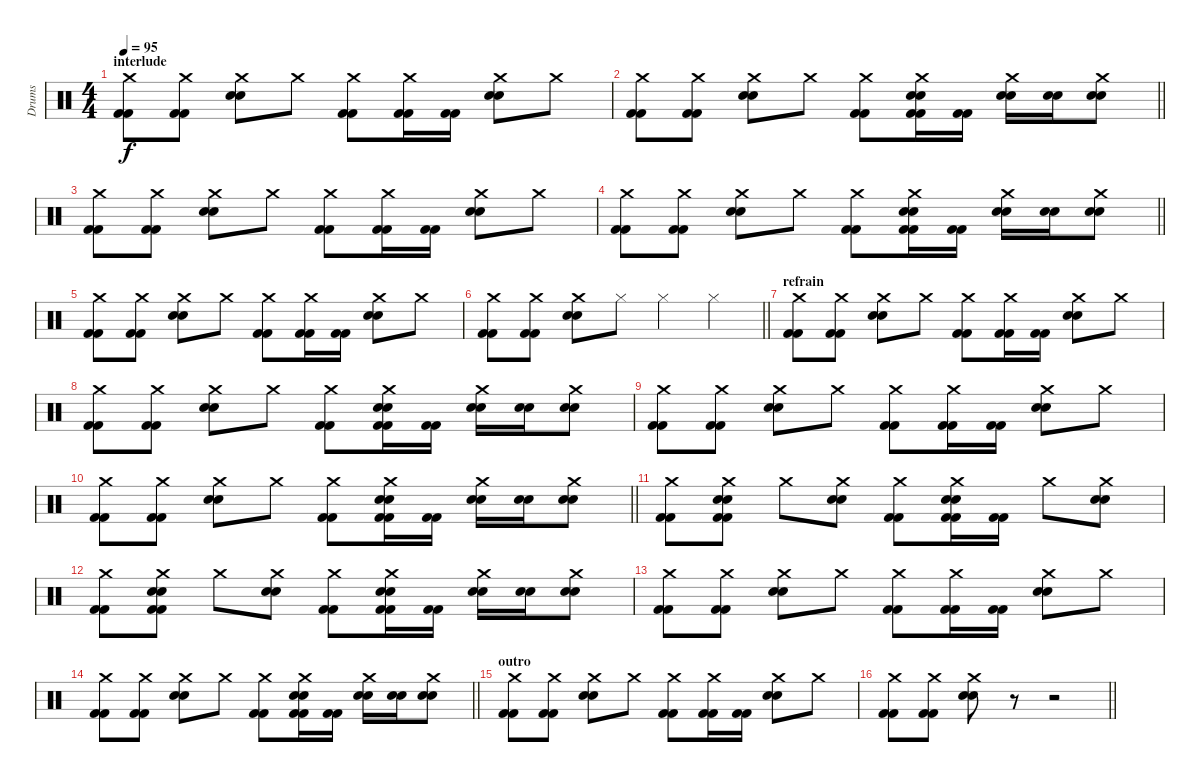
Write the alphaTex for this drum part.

\track ("Drums" "Drums") {instrument percussion}
\staff {score}
\articulation defaults
\ts (4 4)
\section ("" "interlude")
\tempo 95
\clef neutral
\ks c
("Crash medium (hit)" "Kick (hit) 2" "Kick (hit) 2").8{dy f} ("Crash medium (hit)" "Kick (hit) 2" "Kick (hit) 2").8 ("Crash medium (hit)" "Snare (hit) 2" "Snare (hit) 2").8 "Crash medium (hit)".8 ("Crash medium (hit)" "Kick (hit) 2" "Kick (hit) 2").8 ("Crash medium (hit)" "Kick (hit) 2" "Kick (hit) 2").16 ("Kick (hit) 2" "Kick (hit) 2").16 ("Crash medium (hit)" "Snare (hit) 2" "Snare (hit) 2").8 "Crash medium (hit)".8 |
\barLineRight lightlight
("Crash medium (hit)" "Kick (hit) 2" "Kick (hit) 2").8 ("Crash medium (hit)" "Kick (hit) 2" "Kick (hit) 2").8 ("Crash medium (hit)" "Snare (hit) 2" "Snare (hit) 2").8 "Crash medium (hit)".8 ("Crash medium (hit)" "Kick (hit) 2" "Kick (hit) 2").8 ("Crash medium (hit)" "Snare (hit) 2" "Snare (hit) 2" "Kick (hit) 2" "Kick (hit) 2").16 ("Kick (hit) 2" "Kick (hit) 2").16 ("Crash medium (hit)" "Snare (hit) 2" "Snare (hit) 2").16 ("Snare (hit) 2" "Snare (hit) 2").16 ("Crash medium (hit)" "Snare (hit) 2" "Snare (hit) 2").8 |
("Crash medium (hit)" "Kick (hit) 2" "Kick (hit) 2").8 ("Crash medium (hit)" "Kick (hit) 2" "Kick (hit) 2").8 ("Crash medium (hit)" "Snare (hit) 2" "Snare (hit) 2").8 "Crash medium (hit)".8 ("Crash medium (hit)" "Kick (hit) 2" "Kick (hit) 2").8 ("Crash medium (hit)" "Kick (hit) 2" "Kick (hit) 2").16 ("Kick (hit) 2" "Kick (hit) 2").16 ("Crash medium (hit)" "Snare (hit) 2" "Snare (hit) 2").8 "Crash medium (hit)".8 |
\barLineRight lightlight
("Crash medium (hit)" "Kick (hit) 2" "Kick (hit) 2").8 ("Crash medium (hit)" "Kick (hit) 2" "Kick (hit) 2").8 ("Crash medium (hit)" "Snare (hit) 2" "Snare (hit) 2").8 "Crash medium (hit)".8 ("Crash medium (hit)" "Kick (hit) 2" "Kick (hit) 2").8 ("Crash medium (hit)" "Snare (hit) 2" "Snare (hit) 2" "Kick (hit) 2" "Kick (hit) 2").16 ("Kick (hit) 2" "Kick (hit) 2").16 ("Crash medium (hit)" "Snare (hit) 2" "Snare (hit) 2").16 ("Snare (hit) 2" "Snare (hit) 2").16 ("Crash medium (hit)" "Snare (hit) 2" "Snare (hit) 2").8 |
("Crash medium (hit)" "Kick (hit) 2" "Kick (hit) 2").8 ("Crash medium (hit)" "Kick (hit) 2" "Kick (hit) 2").8 ("Crash medium (hit)" "Snare (hit) 2" "Snare (hit) 2").8 "Crash medium (hit)".8 ("Crash medium (hit)" "Kick (hit) 2" "Kick (hit) 2").8 ("Crash medium (hit)" "Kick (hit) 2" "Kick (hit) 2").16 ("Kick (hit) 2" "Kick (hit) 2").16 ("Crash medium (hit)" "Snare (hit) 2" "Snare (hit) 2").8 "Crash medium (hit)".8 |
\barLineRight lightlight
("Crash medium (hit)" "Kick (hit) 2" "Kick (hit) 2").8 ("Crash medium (hit)" "Kick (hit) 2" "Kick (hit) 2").8 ("Crash medium (hit)" "Snare (hit) 2" "Snare (hit) 2").8 "Hi-Hat (closed)".8 "Hi-Hat (closed)".4 "Hi-Hat (closed)".4 |
\section ("" "refrain")
("Crash medium (hit)" "Kick (hit) 2" "Kick (hit) 2").8 ("Crash medium (hit)" "Kick (hit) 2" "Kick (hit) 2").8 ("Crash medium (hit)" "Snare (hit) 2" "Snare (hit) 2").8 "Crash medium (hit)".8 ("Crash medium (hit)" "Kick (hit) 2" "Kick (hit) 2").8 ("Crash medium (hit)" "Kick (hit) 2" "Kick (hit) 2").16 ("Kick (hit) 2" "Kick (hit) 2").16 ("Crash medium (hit)" "Snare (hit) 2" "Snare (hit) 2").8 "Crash medium (hit)".8 |
("Crash medium (hit)" "Kick (hit) 2" "Kick (hit) 2").8 ("Crash medium (hit)" "Kick (hit) 2" "Kick (hit) 2").8 ("Crash medium (hit)" "Snare (hit) 2" "Snare (hit) 2").8 "Crash medium (hit)".8 ("Crash medium (hit)" "Kick (hit) 2" "Kick (hit) 2").8 ("Crash medium (hit)" "Snare (hit) 2" "Snare (hit) 2" "Kick (hit) 2" "Kick (hit) 2").16 ("Kick (hit) 2" "Kick (hit) 2").16 ("Crash medium (hit)" "Snare (hit) 2" "Snare (hit) 2").16 ("Snare (hit) 2" "Snare (hit) 2").16 ("Crash medium (hit)" "Snare (hit) 2" "Snare (hit) 2").8 |
("Crash medium (hit)" "Kick (hit) 2" "Kick (hit) 2").8 ("Crash medium (hit)" "Kick (hit) 2" "Kick (hit) 2").8 ("Crash medium (hit)" "Snare (hit) 2" "Snare (hit) 2").8 "Crash medium (hit)".8 ("Crash medium (hit)" "Kick (hit) 2" "Kick (hit) 2").8 ("Crash medium (hit)" "Kick (hit) 2" "Kick (hit) 2").16 ("Kick (hit) 2" "Kick (hit) 2").16 ("Crash medium (hit)" "Snare (hit) 2" "Snare (hit) 2").8 "Crash medium (hit)".8 |
\barLineRight lightlight
("Crash medium (hit)" "Kick (hit) 2" "Kick (hit) 2").8 ("Crash medium (hit)" "Kick (hit) 2" "Kick (hit) 2").8 ("Crash medium (hit)" "Snare (hit) 2" "Snare (hit) 2").8 "Crash medium (hit)".8 ("Crash medium (hit)" "Kick (hit) 2" "Kick (hit) 2").8 ("Crash medium (hit)" "Snare (hit) 2" "Snare (hit) 2" "Kick (hit) 2" "Kick (hit) 2").16 ("Kick (hit) 2" "Kick (hit) 2").16 ("Crash medium (hit)" "Snare (hit) 2" "Snare (hit) 2").16 ("Snare (hit) 2" "Snare (hit) 2").16 ("Crash medium (hit)" "Snare (hit) 2" "Snare (hit) 2").8 |
("Crash medium (hit)" "Kick (hit) 2" "Kick (hit) 2").8 ("Crash medium (hit)" "Snare (hit) 2" "Snare (hit) 2" "Kick (hit) 2" "Kick (hit) 2").8 "Crash medium (hit)".8 ("Crash medium (hit)" "Snare (hit) 2" "Snare (hit) 2").8 ("Crash medium (hit)" "Kick (hit) 2" "Kick (hit) 2").8 ("Crash medium (hit)" "Snare (hit) 2" "Snare (hit) 2" "Kick (hit) 2" "Kick (hit) 2").16 ("Kick (hit) 2" "Kick (hit) 2").16 "Crash medium (hit)".8 ("Crash medium (hit)" "Snare (hit) 2" "Snare (hit) 2").8 |
("Crash medium (hit)" "Kick (hit) 2" "Kick (hit) 2").8 ("Crash medium (hit)" "Snare (hit) 2" "Snare (hit) 2" "Kick (hit) 2" "Kick (hit) 2").8 "Crash medium (hit)".8 ("Crash medium (hit)" "Snare (hit) 2" "Snare (hit) 2").8 ("Crash medium (hit)" "Kick (hit) 2" "Kick (hit) 2").8 ("Crash medium (hit)" "Snare (hit) 2" "Snare (hit) 2" "Kick (hit) 2" "Kick (hit) 2").16 ("Kick (hit) 2" "Kick (hit) 2").16 ("Crash medium (hit)" "Snare (hit) 2" "Snare (hit) 2").16 ("Snare (hit) 2" "Snare (hit) 2").16 ("Crash medium (hit)" "Snare (hit) 2" "Snare (hit) 2").8 |
("Crash medium (hit)" "Kick (hit) 2" "Kick (hit) 2").8 ("Crash medium (hit)" "Kick (hit) 2" "Kick (hit) 2").8 ("Crash medium (hit)" "Snare (hit) 2" "Snare (hit) 2").8 "Crash medium (hit)".8 ("Crash medium (hit)" "Kick (hit) 2" "Kick (hit) 2").8 ("Crash medium (hit)" "Kick (hit) 2" "Kick (hit) 2").16 ("Kick (hit) 2" "Kick (hit) 2").16 ("Crash medium (hit)" "Snare (hit) 2" "Snare (hit) 2").8 "Crash medium (hit)".8 |
\barLineRight lightlight
("Crash medium (hit)" "Kick (hit) 2" "Kick (hit) 2").8 ("Crash medium (hit)" "Kick (hit) 2" "Kick (hit) 2").8 ("Crash medium (hit)" "Snare (hit) 2" "Snare (hit) 2").8 "Crash medium (hit)".8 ("Crash medium (hit)" "Kick (hit) 2" "Kick (hit) 2").8 ("Crash medium (hit)" "Snare (hit) 2" "Snare (hit) 2" "Kick (hit) 2" "Kick (hit) 2").16 ("Kick (hit) 2" "Kick (hit) 2").16 ("Crash medium (hit)" "Snare (hit) 2" "Snare (hit) 2").16 ("Snare (hit) 2" "Snare (hit) 2").16 ("Crash medium (hit)" "Snare (hit) 2" "Snare (hit) 2").8 |
\section ("" "outro")
("Crash medium (hit)" "Kick (hit) 2" "Kick (hit) 2").8 ("Crash medium (hit)" "Kick (hit) 2" "Kick (hit) 2").8 ("Crash medium (hit)" "Snare (hit) 2" "Snare (hit) 2").8 "Crash medium (hit)".8 ("Crash medium (hit)" "Kick (hit) 2" "Kick (hit) 2").8 ("Crash medium (hit)" "Kick (hit) 2" "Kick (hit) 2").16 ("Kick (hit) 2" "Kick (hit) 2").16 ("Crash medium (hit)" "Snare (hit) 2" "Snare (hit) 2").8 "Crash medium (hit)".8 |
\barLineRight lightlight
("Crash medium (hit)" "Kick (hit) 2" "Kick (hit) 2").8 ("Crash medium (hit)" "Kick (hit) 2" "Kick (hit) 2").8 ("Crash medium (hit)" "Snare (hit) 2" "Snare (hit) 2").8 r.8 r.2
